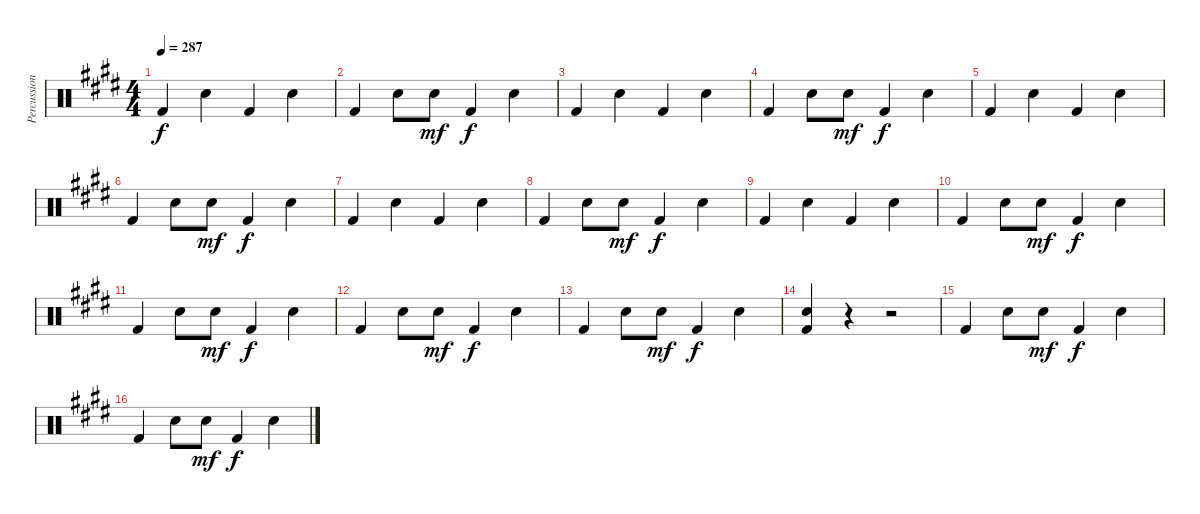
\track ("Percussion" "Percussion") {instrument percussion}
\staff {score}
\articulation defaults
\ts (4 4)
\tempo 287
\clef neutral
\ks c#minor "Kick (hit) 2".4{dy f} "Electric Snare (hit)".4 "Kick (hit) 2".4 "Electric Snare (hit)".4
|
"Kick (hit) 2".4 "Electric Snare (hit)".8 "Electric Snare (hit)".8{dy mf} "Kick (hit) 2".4{dy f} "Electric Snare (hit)".4 |
"Kick (hit) 2".4 "Electric Snare (hit)".4 "Kick (hit) 2".4 "Electric Snare (hit)".4 |
"Kick (hit) 2".4 "Electric Snare (hit)".8 "Electric Snare (hit)".8{dy mf} "Kick (hit) 2".4{dy f} "Electric Snare (hit)".4 |
"Kick (hit) 2".4 "Electric Snare (hit)".4 "Kick (hit) 2".4 "Electric Snare (hit)".4 |
"Kick (hit) 2".4 "Electric Snare (hit)".8 "Electric Snare (hit)".8{dy mf} "Kick (hit) 2".4{dy f} "Electric Snare (hit)".4 |
"Kick (hit) 2".4 "Electric Snare (hit)".4 "Kick (hit) 2".4 "Electric Snare (hit)".4 |
"Kick (hit) 2".4 "Electric Snare (hit)".8 "Electric Snare (hit)".8{dy mf} "Kick (hit) 2".4{dy f} "Electric Snare (hit)".4 |
"Kick (hit) 2".4 "Electric Snare (hit)".4 "Kick (hit) 2".4 "Electric Snare (hit)".4 |
"Kick (hit) 2".4 "Electric Snare (hit)".8 "Electric Snare (hit)".8{dy mf} "Kick (hit) 2".4{dy f} "Electric Snare (hit)".4 |
"Kick (hit) 2".4 "Electric Snare (hit)".8 "Electric Snare (hit)".8{dy mf} "Kick (hit) 2".4{dy f} "Electric Snare (hit)".4 |
"Kick (hit) 2".4 "Electric Snare (hit)".8 "Electric Snare (hit)".8{dy mf} "Kick (hit) 2".4{dy f} "Electric Snare (hit)".4 |
"Kick (hit) 2".4 "Electric Snare (hit)".8 "Electric Snare (hit)".8{dy mf} "Kick (hit) 2".4{dy f} "Electric Snare (hit)".4 |
("Electric Snare (hit)" "Kick (hit) 2").4 r.4{volume 2} r.2 |
"Kick (hit) 2".4{volume 9} "Electric Snare (hit)".8 "Electric Snare (hit)".8{dy mf} "Kick (hit) 2".4{dy f} "Electric Snare (hit)".4 |
"Kick (hit) 2".4 "Electric Snare (hit)".8 "Electric Snare (hit)".8{dy mf} "Kick (hit) 2".4{dy f} "Electric Snare (hit)".4
